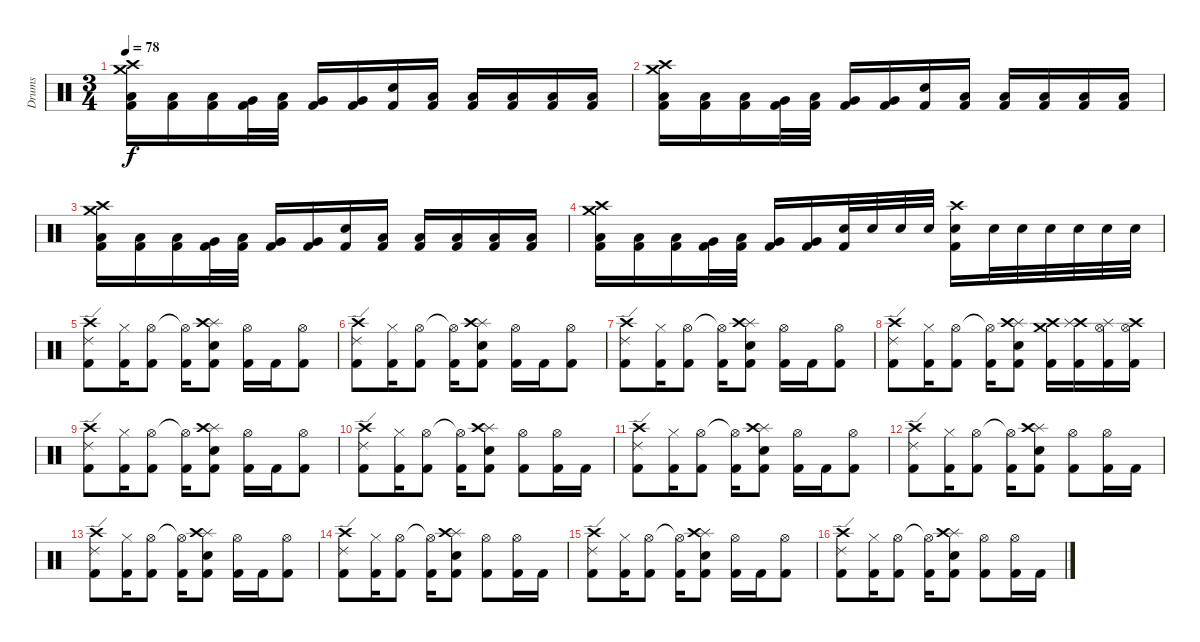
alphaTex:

\track ("Drums" "Drums") {instrument percussion}
\staff {score}
\articulation defaults
\ts (3 4)
\tempo 78
\clef neutral
\ks c
("Crash medium (hit)" "Crash high (hit)" "Low Floor Tom (hit)" "Kick (hit) 2").16{dy f} ("Low Floor Tom (hit)" "Kick (hit) 2").16 ("Low Floor Tom (hit)" "Kick (hit) 2").16 ("Very Low Tom (hit)" "Kick (hit) 2").32 ("Low Floor Tom (hit)" "Kick (hit) 2").32 ("Very Low Tom (hit)" "Kick (hit) 2").16 ("Very Low Tom (hit)" "Kick (hit) 2").16 ("Snare (hit) 2" "Kick (hit) 2").16 ("Low Floor Tom (hit)" "Kick (hit) 2").16 ("Low Floor Tom (hit)" "Kick (hit) 2").16 ("Low Floor Tom (hit)" "Kick (hit) 2").16 ("Low Floor Tom (hit)" "Kick (hit) 2").16 ("Low Floor Tom (hit)" "Kick (hit) 2").16 |
("Crash medium (hit)" "Crash high (hit)" "Low Floor Tom (hit)" "Kick (hit) 2").16 ("Low Floor Tom (hit)" "Kick (hit) 2").16 ("Low Floor Tom (hit)" "Kick (hit) 2").16 ("Very Low Tom (hit)" "Kick (hit) 2").32 ("Low Floor Tom (hit)" "Kick (hit) 2").32 ("Very Low Tom (hit)" "Kick (hit) 2").16 ("Very Low Tom (hit)" "Kick (hit) 2").16 ("Snare (hit) 2" "Kick (hit) 2").16 ("Low Floor Tom (hit)" "Kick (hit) 2").16 ("Low Floor Tom (hit)" "Kick (hit) 2").16 ("Low Floor Tom (hit)" "Kick (hit) 2").16 ("Low Floor Tom (hit)" "Kick (hit) 2").16 ("Low Floor Tom (hit)" "Kick (hit) 2").16 |
("Crash medium (hit)" "Crash high (hit)" "Low Floor Tom (hit)" "Kick (hit) 2").16 ("Low Floor Tom (hit)" "Kick (hit) 2").16 ("Low Floor Tom (hit)" "Kick (hit) 2").16 ("Very Low Tom (hit)" "Kick (hit) 2").32 ("Low Floor Tom (hit)" "Kick (hit) 2").32 ("Very Low Tom (hit)" "Kick (hit) 2").16 ("Very Low Tom (hit)" "Kick (hit) 2").16 ("Snare (hit) 2" "Kick (hit) 2").16 ("Low Floor Tom (hit)" "Kick (hit) 2").16 ("Low Floor Tom (hit)" "Kick (hit) 2").16 ("Low Floor Tom (hit)" "Kick (hit) 2").16 ("Low Floor Tom (hit)" "Kick (hit) 2").16 ("Low Floor Tom (hit)" "Kick (hit) 2").16 |
("Crash medium (hit)" "Crash high (hit)" "Low Floor Tom (hit)" "Kick (hit) 2").16 ("Low Floor Tom (hit)" "Kick (hit) 2").16 ("Low Floor Tom (hit)" "Kick (hit) 2").16 ("Very Low Tom (hit)" "Kick (hit) 2").32 ("Low Floor Tom (hit)" "Kick (hit) 2").32 ("Very Low Tom (hit)" "Kick (hit) 2").16 ("Very Low Tom (hit)" "Kick (hit) 2").16 ("Snare (hit) 2" "Kick (hit) 2").32 "Snare (hit) 2".32 "Snare (hit) 2".32 "Snare (hit) 2".32 ("Crash high (hit)" "Snare (hit) 2" "Kick (hit) 2").16 "Snare (hit) 2".32 "Snare (hit) 2".32 "Snare (hit) 2".32 "Snare (hit) 2".32 "Snare (hit) 2".32 "Snare (hit) 2".32 |
("Crash high (hit)" "Ride (edge) 2" "Kick (hit) 2").8 ("Hi-Hat (closed)" "Kick (hit) 2").16 ("Hi-Hat (open)" "Kick (hit) 2").8 ("Hi-Hat (open)"{t} "Kick (hit) 2").16 ("Splash (hit)" "Crash high (hit)" "Snare (hit) 2" "Kick (hit) 2").8 ("Hi-Hat (open)" "Kick (hit) 2").16 "Kick (hit) 2".16 ("Hi-Hat (open)" "Kick (hit) 2").8 |
("Crash high (hit)" "Ride (edge) 2" "Kick (hit) 2").8 ("Hi-Hat (closed)" "Kick (hit) 2").16 ("Hi-Hat (open)" "Kick (hit) 2").8 ("Hi-Hat (open)"{t} "Kick (hit) 2").16 ("Splash (hit)" "Crash high (hit)" "Snare (hit) 2" "Kick (hit) 2").8 ("Hi-Hat (open)" "Kick (hit) 2").16 "Kick (hit) 2".16 ("Hi-Hat (open)" "Kick (hit) 2").8 |
("Crash high (hit)" "Ride (edge) 2" "Kick (hit) 2").8 ("Hi-Hat (closed)" "Kick (hit) 2").16 ("Hi-Hat (open)" "Kick (hit) 2").8 ("Hi-Hat (open)"{t} "Kick (hit) 2").16 ("Splash (hit)" "Crash high (hit)" "Snare (hit) 2" "Kick (hit) 2").8 ("Hi-Hat (open)" "Kick (hit) 2").16 "Kick (hit) 2".16 ("Hi-Hat (open)" "Kick (hit) 2").8 |
("Crash high (hit)" "Ride (edge) 2" "Kick (hit) 2").8 ("Hi-Hat (closed)" "Kick (hit) 2").16 ("Hi-Hat (open)" "Kick (hit) 2").8 ("Hi-Hat (open)"{t} "Kick (hit) 2").16 ("Splash (hit)" "Crash high (hit)" "Snare (hit) 2" "Kick (hit) 2").8 ("Crash medium (hit)" "Crash high (hit)" "Kick (hit) 2").16 ("Crash high (hit)" "Splash (hit)" "Kick (hit) 2").16 ("Hi-Hat (open)" "Splash (hit)" "Kick (hit) 2").16 ("Hi-Hat (open)" "Crash high (hit)" "Kick (hit) 2").16 |
("Crash high (hit)" "Ride (edge) 2" "Kick (hit) 2").8 ("Hi-Hat (closed)" "Kick (hit) 2").16 ("Hi-Hat (open)" "Kick (hit) 2").8 ("Hi-Hat (open)"{t} "Kick (hit) 2").16 ("Splash (hit)" "Crash high (hit)" "Snare (hit) 2" "Kick (hit) 2").8 ("Hi-Hat (open)" "Kick (hit) 2").16 "Kick (hit) 2".16 ("Hi-Hat (open)" "Kick (hit) 2").8 |
("Crash high (hit)" "Ride (edge) 2" "Kick (hit) 2").8 ("Hi-Hat (closed)" "Kick (hit) 2").16 ("Hi-Hat (open)" "Kick (hit) 2").8 ("Hi-Hat (open)"{t} "Kick (hit) 2").16 ("Splash (hit)" "Crash high (hit)" "Snare (hit) 2" "Kick (hit) 2").8 ("Hi-Hat (open)" "Kick (hit) 2").8 ("Hi-Hat (open)" "Kick (hit) 2").16 "Kick (hit) 2".16 |
("Crash high (hit)" "Ride (edge) 2" "Kick (hit) 2").8 ("Hi-Hat (closed)" "Kick (hit) 2").16 ("Hi-Hat (open)" "Kick (hit) 2").8 ("Hi-Hat (open)"{t} "Kick (hit) 2").16 ("Splash (hit)" "Crash high (hit)" "Snare (hit) 2" "Kick (hit) 2").8 ("Hi-Hat (open)" "Kick (hit) 2").16 "Kick (hit) 2".16 ("Hi-Hat (open)" "Kick (hit) 2").8 |
("Crash high (hit)" "Ride (edge) 2" "Kick (hit) 2").8 ("Hi-Hat (closed)" "Kick (hit) 2").16 ("Hi-Hat (open)" "Kick (hit) 2").8 ("Hi-Hat (open)"{t} "Kick (hit) 2").16 ("Splash (hit)" "Crash high (hit)" "Snare (hit) 2" "Kick (hit) 2").8 ("Hi-Hat (open)" "Kick (hit) 2").8 ("Hi-Hat (open)" "Kick (hit) 2").16 "Kick (hit) 2".16 |
("Crash high (hit)" "Ride (edge) 2" "Kick (hit) 2").8 ("Hi-Hat (closed)" "Kick (hit) 2").16 ("Hi-Hat (open)" "Kick (hit) 2").8 ("Hi-Hat (open)"{t} "Kick (hit) 2").16 ("Splash (hit)" "Crash high (hit)" "Snare (hit) 2" "Kick (hit) 2").8 ("Hi-Hat (open)" "Kick (hit) 2").16 "Kick (hit) 2".16 ("Hi-Hat (open)" "Kick (hit) 2").8 |
("Crash high (hit)" "Ride (edge) 2" "Kick (hit) 2").8 ("Hi-Hat (closed)" "Kick (hit) 2").16 ("Hi-Hat (open)" "Kick (hit) 2").8 ("Hi-Hat (open)"{t} "Kick (hit) 2").16 ("Splash (hit)" "Crash high (hit)" "Snare (hit) 2" "Kick (hit) 2").8 ("Hi-Hat (open)" "Kick (hit) 2").8 ("Hi-Hat (open)" "Kick (hit) 2").16 "Kick (hit) 2".16 |
("Crash high (hit)" "Ride (edge) 2" "Kick (hit) 2").8 ("Hi-Hat (closed)" "Kick (hit) 2").16 ("Hi-Hat (open)" "Kick (hit) 2").8 ("Hi-Hat (open)"{t} "Kick (hit) 2").16 ("Splash (hit)" "Crash high (hit)" "Snare (hit) 2" "Kick (hit) 2").8 ("Hi-Hat (open)" "Kick (hit) 2").16 "Kick (hit) 2".16 ("Hi-Hat (open)" "Kick (hit) 2").8 |
("Crash high (hit)" "Ride (edge) 2" "Kick (hit) 2").8 ("Hi-Hat (closed)" "Kick (hit) 2").16 ("Hi-Hat (open)" "Kick (hit) 2").8 ("Hi-Hat (open)"{t} "Kick (hit) 2").16 ("Splash (hit)" "Crash high (hit)" "Snare (hit) 2" "Kick (hit) 2").8 ("Hi-Hat (open)" "Kick (hit) 2").8 ("Hi-Hat (open)" "Kick (hit) 2").16 "Kick (hit) 2".16
